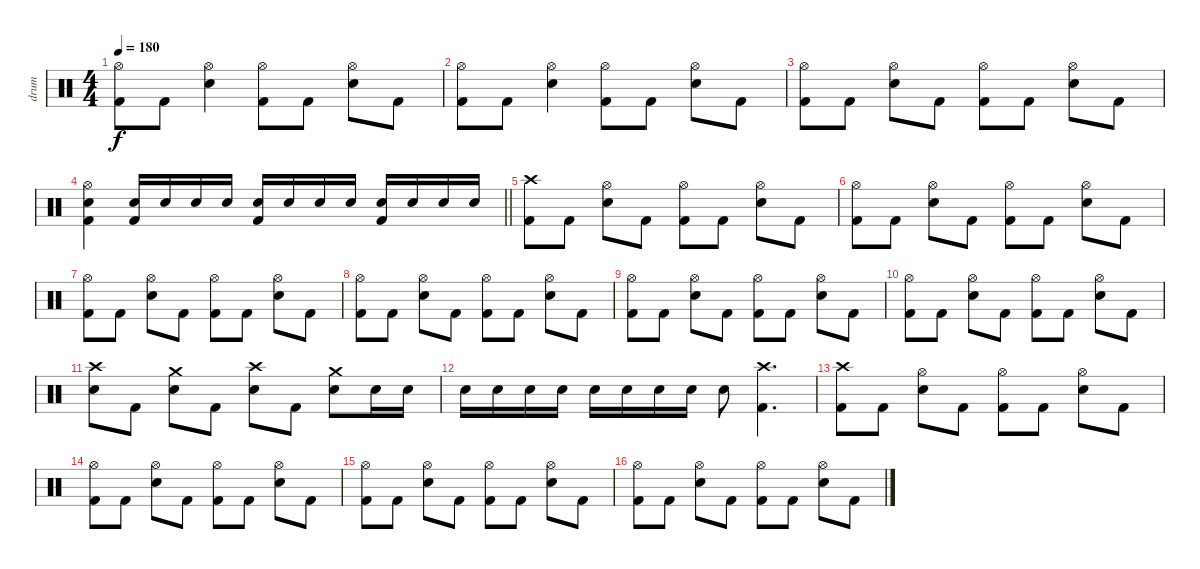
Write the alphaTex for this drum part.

\track ("drum" "drum") {instrument percussion}
\staff {score}
\articulation defaults
\ts (4 4)
\tempo 180
\clef neutral
\ks c
("Hi-Hat (open)" "Kick (hit) 2").8{dy f} "Kick (hit) 2".8 ("Hi-Hat (open)" "Snare (hit) 2").4 ("Hi-Hat (open)" "Kick (hit) 2").8 "Kick (hit) 2".8 ("Hi-Hat (open)" "Snare (hit) 2").8 "Kick (hit) 2".8 |
("Hi-Hat (open)" "Kick (hit) 2").8 "Kick (hit) 2".8 ("Hi-Hat (open)" "Snare (hit) 2").4 ("Hi-Hat (open)" "Kick (hit) 2").8 "Kick (hit) 2".8 ("Hi-Hat (open)" "Snare (hit) 2").8 "Kick (hit) 2".8 |
("Hi-Hat (open)" "Kick (hit) 2").8 "Kick (hit) 2".8 ("Hi-Hat (open)" "Snare (hit) 2").8 "Kick (hit) 2".8 ("Hi-Hat (open)" "Kick (hit) 2").8 "Kick (hit) 2".8 ("Hi-Hat (open)" "Snare (hit) 2").8 "Kick (hit) 2".8 |
\barLineRight lightlight
("Hi-Hat (open)" "Snare (hit) 2" "Kick (hit) 2").4 ("Snare (hit) 2" "Kick (hit) 2").16 "Snare (hit) 2".16 "Snare (hit) 2".16 "Snare (hit) 2".16 ("Snare (hit) 2" "Kick (hit) 2").16 "Snare (hit) 2".16 "Snare (hit) 2".16 "Snare (hit) 2".16 ("Snare (hit) 2" "Kick (hit) 2").16 "Snare (hit) 2".16 "Snare (hit) 2".16 "Snare (hit) 2".16 |
("Crash high (hit)" "Kick (hit) 2").8 "Kick (hit) 2".8 ("Hi-Hat (open)" "Snare (hit) 2").8 "Kick (hit) 2".8 ("Hi-Hat (open)" "Kick (hit) 2").8 "Kick (hit) 2".8 ("Hi-Hat (open)" "Snare (hit) 2").8 "Kick (hit) 2".8 |
("Hi-Hat (open)" "Kick (hit) 2").8 "Kick (hit) 2".8 ("Hi-Hat (open)" "Snare (hit) 2").8 "Kick (hit) 2".8 ("Hi-Hat (open)" "Kick (hit) 2").8 "Kick (hit) 2".8 ("Hi-Hat (open)" "Snare (hit) 2").8 "Kick (hit) 2".8 |
("Hi-Hat (open)" "Kick (hit) 2").8 "Kick (hit) 2".8 ("Hi-Hat (open)" "Snare (hit) 2").8 "Kick (hit) 2".8 ("Hi-Hat (open)" "Kick (hit) 2").8 "Kick (hit) 2".8 ("Hi-Hat (open)" "Snare (hit) 2").8 "Kick (hit) 2".8 |
("Hi-Hat (open)" "Kick (hit) 2").8 "Kick (hit) 2".8 ("Hi-Hat (open)" "Snare (hit) 2").8 "Kick (hit) 2".8 ("Hi-Hat (open)" "Kick (hit) 2").8 "Kick (hit) 2".8 ("Hi-Hat (open)" "Snare (hit) 2").8 "Kick (hit) 2".8 |
("Hi-Hat (open)" "Kick (hit) 2").8 "Kick (hit) 2".8 ("Hi-Hat (open)" "Snare (hit) 2").8 "Kick (hit) 2".8 ("Hi-Hat (open)" "Kick (hit) 2").8 "Kick (hit) 2".8 ("Hi-Hat (open)" "Snare (hit) 2").8 "Kick (hit) 2".8 |
("Hi-Hat (open)" "Kick (hit) 2").8 "Kick (hit) 2".8 ("Hi-Hat (open)" "Snare (hit) 2").8 "Kick (hit) 2".8 ("Hi-Hat (open)" "Kick (hit) 2").8 "Kick (hit) 2".8 ("Hi-Hat (open)" "Snare (hit) 2").8 "Kick (hit) 2".8 |
("Crash high (hit)" "Snare (hit) 2").8 "Kick (hit) 2".8 ("Crash medium (hit)" "Snare (hit) 2").8 "Kick (hit) 2".8 ("Crash high (hit)" "Snare (hit) 2").8 "Kick (hit) 2".8 ("Crash medium (hit)" "Snare (hit) 2").8 "Snare (hit) 2".16 "Snare (hit) 2".16 |
"Snare (hit) 2".16 "Snare (hit) 2".16 "Snare (hit) 2".16 "Snare (hit) 2".16 "Snare (hit) 2".16 "Snare (hit) 2".16 "Snare (hit) 2".16 "Snare (hit) 2".16 "Snare (hit) 2".8 ("Crash high (hit)" "Kick (hit) 2").4{d} |
("Crash high (hit)" "Kick (hit) 2").8 "Kick (hit) 2".8 ("Hi-Hat (open)" "Snare (hit) 2").8 "Kick (hit) 2".8 ("Hi-Hat (open)" "Kick (hit) 2").8 "Kick (hit) 2".8 ("Hi-Hat (open)" "Snare (hit) 2").8 "Kick (hit) 2".8 |
("Hi-Hat (open)" "Kick (hit) 2").8 "Kick (hit) 2".8 ("Hi-Hat (open)" "Snare (hit) 2").8 "Kick (hit) 2".8 ("Hi-Hat (open)" "Kick (hit) 2").8 "Kick (hit) 2".8 ("Hi-Hat (open)" "Snare (hit) 2").8 "Kick (hit) 2".8 |
("Hi-Hat (open)" "Kick (hit) 2").8 "Kick (hit) 2".8 ("Hi-Hat (open)" "Snare (hit) 2").8 "Kick (hit) 2".8 ("Hi-Hat (open)" "Kick (hit) 2").8 "Kick (hit) 2".8 ("Hi-Hat (open)" "Snare (hit) 2").8 "Kick (hit) 2".8 |
("Hi-Hat (open)" "Kick (hit) 2").8 "Kick (hit) 2".8 ("Hi-Hat (open)" "Snare (hit) 2").8 "Kick (hit) 2".8 ("Hi-Hat (open)" "Kick (hit) 2").8 "Kick (hit) 2".8 ("Hi-Hat (open)" "Snare (hit) 2").8 "Kick (hit) 2".8
